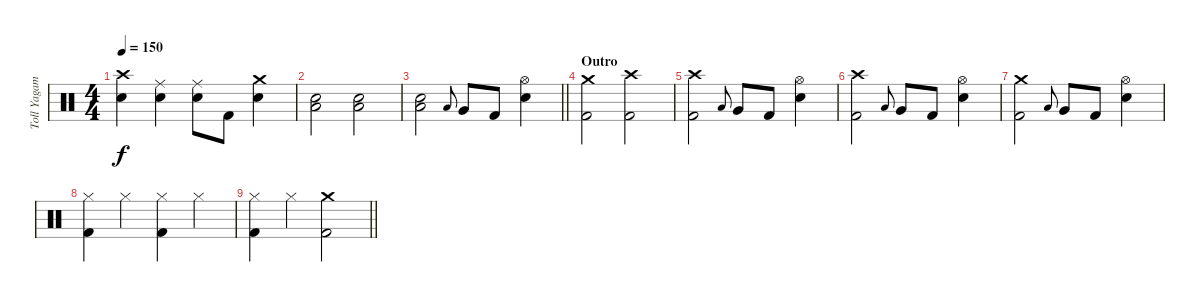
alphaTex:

\track ("Toll Yagami" "Toll Yagam") {instrument percussion}
\staff {score}
\articulation defaults
\ts (4 4)
\tempo 150
\clef neutral
\ks c
("Crash high (hit)" "Electric Snare (hit)").4{dy f} ("Ride (middle)" "Electric Snare (hit)").4 ("Ride (middle)" "Electric Snare (hit)").8 "Kick (hit) 2".8 ("Crash medium (hit)" "Electric Snare (hit)").4 |
("Low Floor Tom (hit)" "Electric Snare (hit)").2 ("Low Floor Tom (hit)" "Electric Snare (hit)").2 |
\barLineRight lightlight
("Low Floor Tom (hit)" "Electric Snare (hit)").2 "Low Tom (hit)".8{gr onbeat} "Very Low Tom (hit)".8 "Kick (hit) 2".8 ("Hi-Hat (open)" "Electric Snare (hit)").4 |
\section ("" "Outro")
("Crash medium (hit)" "Kick (hit) 2").2 ("Crash high (hit)" "Kick (hit) 2").2 |
("Crash high (hit)" "Kick (hit) 2").2 "Low Tom (hit)".8{gr onbeat} "Very Low Tom (hit)".8 "Kick (hit) 2".8 ("Hi-Hat (open)" "Electric Snare (hit)").4 |
("Crash high (hit)" "Kick (hit) 2").2 "Low Tom (hit)".8{gr onbeat} "Very Low Tom (hit)".8 "Kick (hit) 2".8 ("Hi-Hat (open)" "Electric Snare (hit)").4 |
("Crash medium (hit)" "Kick (hit) 2").2 "Low Tom (hit)".8{gr onbeat} "Very Low Tom (hit)".8 "Kick (hit) 2".8 ("Hi-Hat (open)" "Electric Snare (hit)").4 |
("Hi-Hat (closed)" "Kick (hit) 2").4 "Hi-Hat (closed)".4 ("Hi-Hat (closed)" "Kick (hit) 2").4 "Hi-Hat (closed)".4 |
\barLineRight lightlight
("Hi-Hat (closed)" "Kick (hit) 2").4 "Hi-Hat (closed)".4 ("Crash medium (hit)" "Kick (hit) 2").2
